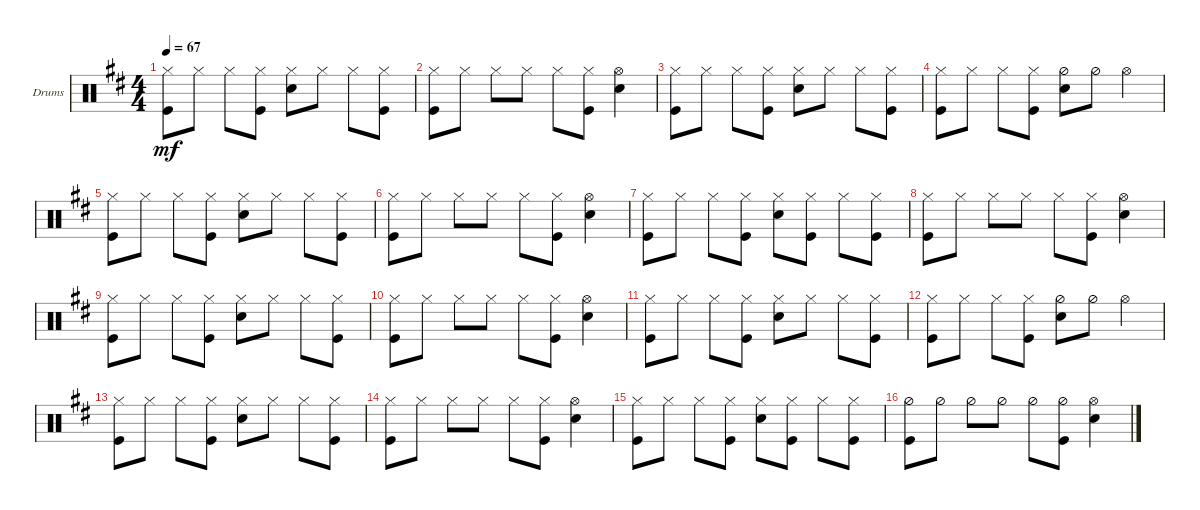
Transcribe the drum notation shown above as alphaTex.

\defaultSystemsLayout 4
\bracketExtendMode groupsimilarinstruments
\firstSystemTrackNameOrientation horizontal
\otherSystemsTrackNameOrientation horizontal
\track ("Drumkit" "Drums") {instrument percussion}
\staff {score}
\articulation defaults
\ts (4 4)
\tempo 67
\clef neutral
\scale
0.333333
\ks d
("Kick (hit)" "Hi-Hat (closed)").8{dy mf} "Hi-Hat (closed)".8 "Hi-Hat (closed)".8 ("Kick (hit)" "Hi-Hat (closed)").8 ("Snare (hit) 2" "Hi-Hat (closed)").8 "Hi-Hat (closed)".8 "Hi-Hat (closed)".8 ("Hi-Hat (closed)" "Kick (hit)").8 |
\scale
0.333333 ("Kick (hit)" "Hi-Hat (closed)").8 "Hi-Hat (closed)".8 "Hi-Hat (closed)".8 "Hi-Hat (closed)".8 "Hi-Hat (closed)".8 ("Kick (hit)" "Hi-Hat (closed)").8 ("Snare (hit) 2" "Hi-Hat (open)").4 |
\scale
0.333333 ("Kick (hit)" "Hi-Hat (closed)").8 "Hi-Hat (closed)".8 "Hi-Hat (closed)".8 ("Kick (hit)" "Hi-Hat (closed)").8 ("Snare (hit) 2" "Hi-Hat (closed)").8 "Hi-Hat (closed)".8 "Hi-Hat (closed)".8 ("Hi-Hat (closed)" "Kick (hit)").8 |
\scale
0.333333 ("Kick (hit)" "Hi-Hat (closed)").8 "Hi-Hat (closed)".8 "Hi-Hat (closed)".8 ("Hi-Hat (closed)" "Kick (hit)").8 ("Hi-Hat (half)" "Snare (hit) 2").8 "Hi-Hat (half)".8 "Hi-Hat (open)".4 |
\scale
0.333333 ("Kick (hit)" "Hi-Hat (closed)").8 "Hi-Hat (closed)".8 "Hi-Hat (closed)".8 ("Kick (hit)" "Hi-Hat (closed)").8 ("Snare (hit) 2" "Hi-Hat (closed)").8 "Hi-Hat (closed)".8 "Hi-Hat (closed)".8 ("Kick (hit)" "Hi-Hat (closed)").8 |
\scale
0.333333 ("Kick (hit)" "Hi-Hat (closed)").8 "Hi-Hat (closed)".8 "Hi-Hat (closed)".8 "Hi-Hat (closed)".8 "Hi-Hat (closed)".8 ("Kick (hit)" "Hi-Hat (closed)").8 ("Snare (hit) 2" "Hi-Hat (open)").4 |
\scale
0.333333 ("Kick (hit)" "Hi-Hat (closed)").8 "Hi-Hat (closed)".8 "Hi-Hat (closed)".8 ("Kick (hit)" "Hi-Hat (closed)").8 ("Snare (hit) 2" "Hi-Hat (closed)").8 ("Kick (hit)" "Hi-Hat (closed)").8 "Hi-Hat (closed)".8 ("Kick (hit)" "Hi-Hat (closed)").8 |
\scale
0.333333 ("Kick (hit)" "Hi-Hat (closed)").8 "Hi-Hat (closed)".8 "Hi-Hat (closed)".8 "Hi-Hat (closed)".8 "Hi-Hat (closed)".8 ("Kick (hit)" "Hi-Hat (closed)").8 ("Snare (hit) 2" "Hi-Hat (open)").4 |
\scale
0.333333 ("Kick (hit)" "Hi-Hat (closed)").8 "Hi-Hat (closed)".8 "Hi-Hat (closed)".8 ("Kick (hit)" "Hi-Hat (closed)").8 ("Snare (hit) 2" "Hi-Hat (closed)").8 "Hi-Hat (closed)".8 "Hi-Hat (closed)".8 ("Kick (hit)" "Hi-Hat (closed)").8 |
\scale
0.333333 ("Kick (hit)" "Hi-Hat (closed)").8 "Hi-Hat (closed)".8 "Hi-Hat (closed)".8 "Hi-Hat (closed)".8 "Hi-Hat (closed)".8 ("Kick (hit)" "Hi-Hat (closed)").8 ("Snare (hit) 2" "Hi-Hat (open)").4 |
\scale
0.333333 ("Kick (hit)" "Hi-Hat (closed)").8 "Hi-Hat (closed)".8 "Hi-Hat (closed)".8 ("Kick (hit)" "Hi-Hat (closed)").8 ("Snare (hit) 2" "Hi-Hat (closed)").8 "Hi-Hat (closed)".8 "Hi-Hat (closed)".8 ("Hi-Hat (closed)" "Kick (hit)").8 |
\scale
0.333333 ("Kick (hit)" "Hi-Hat (closed)").8 "Hi-Hat (closed)".8 "Hi-Hat (closed)".8 ("Hi-Hat (closed)" "Kick (hit)").8 ("Hi-Hat (half)" "Snare (hit) 2").8 "Hi-Hat (half)".8 "Hi-Hat (open)".4 |
\scale
0.333333 ("Kick (hit)" "Hi-Hat (closed)").8 "Hi-Hat (closed)".8 "Hi-Hat (closed)".8 ("Kick (hit)" "Hi-Hat (closed)").8 ("Snare (hit) 2" "Hi-Hat (closed)").8 "Hi-Hat (closed)".8 "Hi-Hat (closed)".8 ("Kick (hit)" "Hi-Hat (closed)").8 |
\scale
0.333333 ("Kick (hit)" "Hi-Hat (closed)").8 "Hi-Hat (closed)".8 "Hi-Hat (closed)".8 "Hi-Hat (closed)".8 "Hi-Hat (closed)".8 ("Kick (hit)" "Hi-Hat (closed)").8 ("Snare (hit) 2" "Hi-Hat (open)").4 |
\scale
0.333333 ("Kick (hit)" "Hi-Hat (closed)").8 "Hi-Hat (closed)".8 "Hi-Hat (closed)".8 ("Kick (hit)" "Hi-Hat (closed)").8 ("Snare (hit) 2" "Hi-Hat (closed)").8 ("Kick (hit)" "Hi-Hat (closed)").8 "Hi-Hat (closed)".8 ("Kick (hit)" "Hi-Hat (closed)").8 |
\scale
0.333333 ("Kick (hit)" "Hi-Hat (half)").8 "Hi-Hat (half)".8 "Hi-Hat (half)".8 "Hi-Hat (half)".8 "Hi-Hat (half)".8 ("Kick (hit)" "Hi-Hat (half)").8 ("Snare (hit) 2" "Hi-Hat (open)").4
